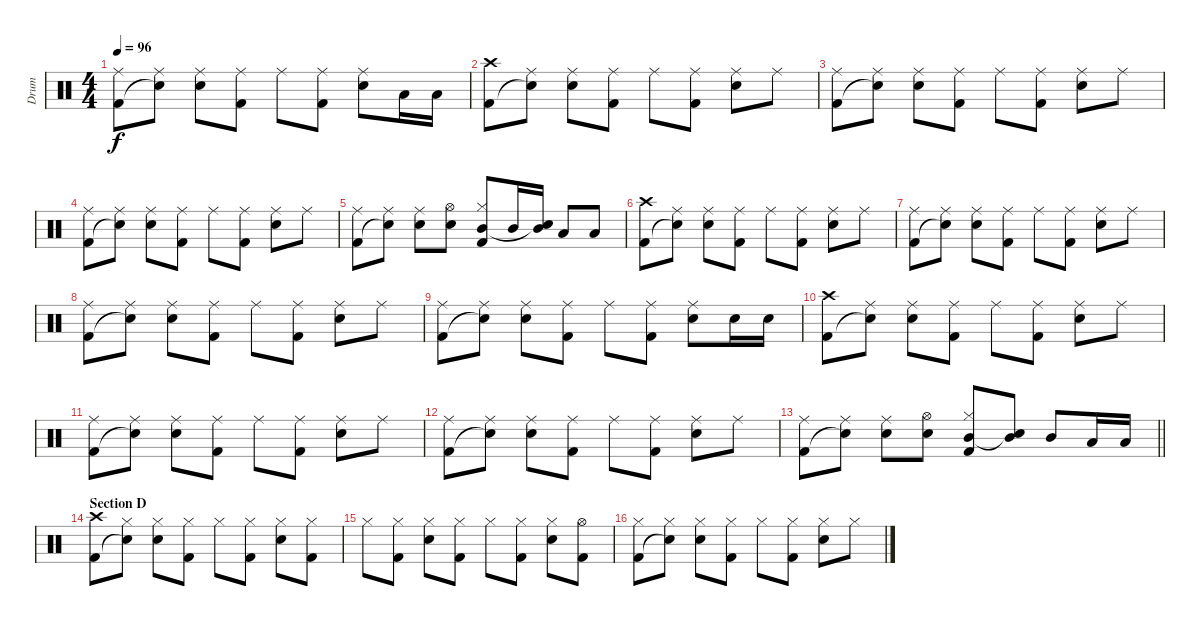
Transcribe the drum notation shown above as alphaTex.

\track ("Drum" "Drum") {instrument percussion}
\staff {score}
\articulation defaults
\ts (4 4)
\tempo 96
\clef neutral
\ks c
("Ride (middle)" "Kick (hit) 2").8{dy f} ("Ride (middle)" "Snare (hit)"{t}).8 ("Ride (middle)" "Snare (hit) 2").8 ("Ride (middle)" "Kick (hit) 2").8 "Ride (middle)".8 ("Ride (middle)" "Kick (hit) 2").8 ("Ride (middle)" "Snare (hit) 2").8 "Low Tom (hit)".16 "Low Tom (hit)".16 |
("Crash high (hit)" "Kick (hit) 2").8 ("Ride (middle)" "Snare (hit)"{t}).8 ("Ride (middle)" "Snare (hit) 2").8 ("Ride (middle)" "Kick (hit) 2").8 "Ride (middle)".8 ("Ride (middle)" "Kick (hit) 2").8 ("Ride (middle)" "Snare (hit) 2").8 "Ride (middle)".8 |
("Ride (middle)" "Kick (hit) 2").8 ("Ride (middle)" "Snare (hit)"{t}).8 ("Ride (middle)" "Snare (hit) 2").8 ("Ride (middle)" "Kick (hit) 2").8 "Ride (middle)".8 ("Ride (middle)" "Kick (hit) 2").8 ("Ride (middle)" "Snare (hit) 2").8 "Ride (middle)".8 |
("Ride (middle)" "Kick (hit) 2").8 ("Ride (middle)" "Snare (hit)"{t}).8 ("Ride (middle)" "Snare (hit) 2").8 ("Ride (middle)" "Kick (hit) 2").8 "Ride (middle)".8 ("Ride (middle)" "Kick (hit) 2").8 ("Ride (middle)" "Snare (hit) 2").8 "Ride (middle)".8 |
("Ride (middle)" "Kick (hit) 2").8 ("Ride (middle)" "Snare (hit)"{t}).8 ("Ride (middle)" "Snare (hit) 2").8 ("Hi-Hat (open)" "Snare (hit) 2").8 ("Hi-Hat (closed)" "Mid Tom (hit)" "Kick (hit) 2").8 "Mid Tom (hit)".16 ("Mid Tom (hit)" "Snare (hit)"{t}).16 "Low Tom (hit)".8 "Low Tom (hit)".8 |
("Crash high (hit)" "Kick (hit) 2").8 ("Ride (middle)" "Snare (hit)"{t}).8 ("Ride (middle)" "Snare (hit) 2").8 ("Ride (middle)" "Kick (hit) 2").8 "Ride (middle)".8 ("Ride (middle)" "Kick (hit) 2").8 ("Ride (middle)" "Snare (hit) 2").8 "Ride (middle)".8 |
("Ride (middle)" "Kick (hit) 2").8 ("Ride (middle)" "Snare (hit)"{t}).8 ("Ride (middle)" "Snare (hit) 2").8 ("Ride (middle)" "Kick (hit) 2").8 "Ride (middle)".8 ("Ride (middle)" "Kick (hit) 2").8 ("Ride (middle)" "Snare (hit) 2").8 "Ride (middle)".8 |
("Ride (middle)" "Kick (hit) 2").8 ("Ride (middle)" "Snare (hit)"{t}).8 ("Ride (middle)" "Snare (hit) 2").8 ("Ride (middle)" "Kick (hit) 2").8 "Ride (middle)".8 ("Ride (middle)" "Kick (hit) 2").8 ("Ride (middle)" "Snare (hit) 2").8 "Ride (middle)".8 |
("Ride (middle)" "Kick (hit) 2").8 ("Ride (middle)" "Snare (hit)"{t}).8 ("Ride (middle)" "Snare (hit) 2").8 ("Ride (middle)" "Kick (hit) 2").8 "Ride (middle)".8 ("Ride (middle)" "Kick (hit) 2").8 ("Ride (middle)" "Snare (hit) 2").8 "Snare (hit) 2".16 "Snare (hit) 2".16 |
("Crash high (hit)" "Kick (hit) 2").8 ("Ride (middle)" "Snare (hit)"{t}).8 ("Ride (middle)" "Snare (hit) 2").8 ("Ride (middle)" "Kick (hit) 2").8 "Ride (middle)".8 ("Ride (middle)" "Kick (hit) 2").8 ("Ride (middle)" "Snare (hit) 2").8 "Ride (middle)".8 |
("Ride (middle)" "Kick (hit) 2").8 ("Ride (middle)" "Snare (hit)"{t}).8 ("Ride (middle)" "Snare (hit) 2").8 ("Ride (middle)" "Kick (hit) 2").8 "Ride (middle)".8 ("Ride (middle)" "Kick (hit) 2").8 ("Ride (middle)" "Snare (hit) 2").8 "Ride (middle)".8 |
("Ride (middle)" "Kick (hit) 2").8 ("Ride (middle)" "Snare (hit)"{t}).8 ("Ride (middle)" "Snare (hit) 2").8 ("Ride (middle)" "Kick (hit) 2").8 "Ride (middle)".8 ("Ride (middle)" "Kick (hit) 2").8 ("Ride (middle)" "Snare (hit) 2").8 "Ride (middle)".8 |
\barLineRight lightlight
("Ride (middle)" "Kick (hit) 2").8 ("Ride (middle)" "Snare (hit)"{t}).8 ("Ride (middle)" "Snare (hit) 2").8 ("Hi-Hat (open)" "Snare (hit) 2").8 ("Hi-Hat (closed)" "Mid Tom (hit)" "Kick (hit) 2").8 ("Mid Tom (hit)" "Snare (hit)"{t}).8 "Mid Tom (hit)".8 "Low Tom (hit)".16 "Low Tom (hit)".16 |
\section ("" "Section D")
("Crash high (hit)" "Kick (hit) 2").8 ("Hi-Hat (closed)" "Snare (hit)"{t}).8 ("Hi-Hat (closed)" "Snare (hit) 2").8 ("Hi-Hat (closed)" "Kick (hit) 2").8 "Hi-Hat (closed)".8 ("Hi-Hat (closed)" "Kick (hit) 2").8 ("Hi-Hat (closed)" "Snare (hit) 2").8 ("Hi-Hat (closed)" "Kick (hit) 2").8 |
"Hi-Hat (closed)".8 ("Hi-Hat (closed)" "Kick (hit) 2").8 ("Hi-Hat (closed)" "Snare (hit) 2").8 ("Hi-Hat (closed)" "Kick (hit) 2").8 "Hi-Hat (closed)".8 ("Hi-Hat (closed)" "Kick (hit) 2").8 ("Hi-Hat (closed)" "Snare (hit) 2").8 ("Hi-Hat (open)" "Kick (hit) 2").8 |
("Hi-Hat (closed)" "Kick (hit) 2").8 ("Hi-Hat (closed)" "Snare (hit)"{t}).8 ("Hi-Hat (closed)" "Snare (hit) 2").8 ("Hi-Hat (closed)" "Kick (hit) 2").8 "Hi-Hat (closed)".8 ("Hi-Hat (closed)" "Kick (hit) 2").8 ("Hi-Hat (closed)" "Snare (hit) 2").8 "Hi-Hat (closed)".8
